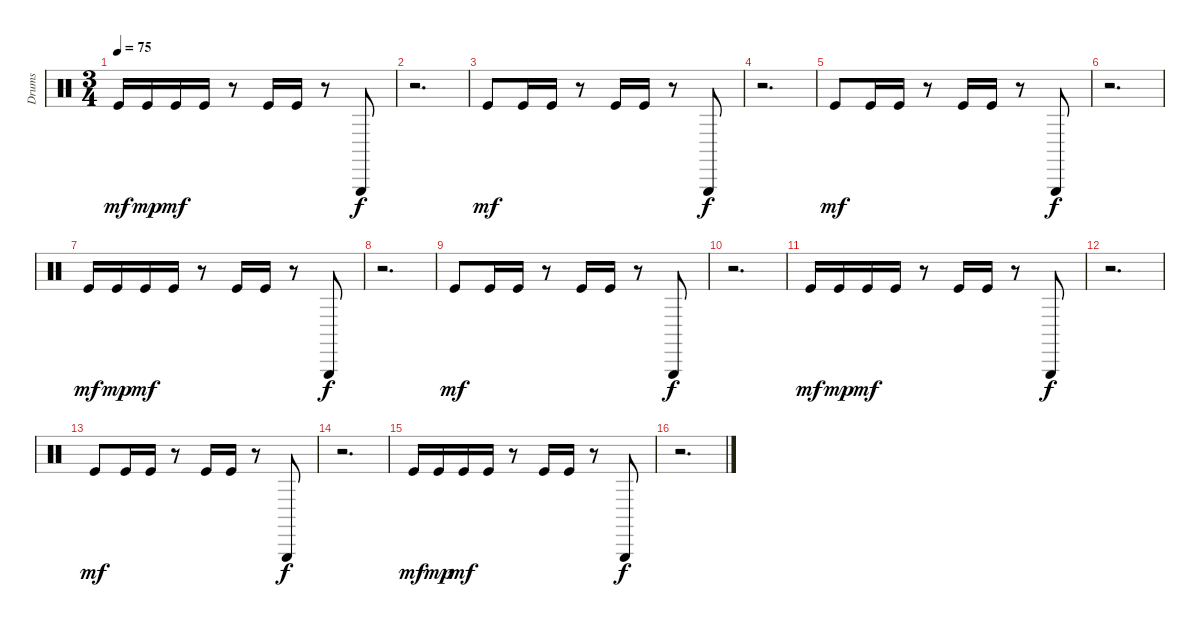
\track ("Drums" "Drums") {instrument percussion}
\staff {score}
\articulation defaults
\ts (3 4)
\tempo 75
\clef neutral
\ks c "Kick (hit)".16{dy mf} "Kick (hit)".16{dy mp} "Kick (hit)".16{dy mf} "Kick (hit)".16
r.8 "Kick (hit)".16 "Kick (hit)".16 r.8 "Triangle (hit)".8{dy f} |
r.2{d} |
"Kick (hit)".8{dy mf} "Kick (hit)".16 "Kick (hit)".16 r.8 "Kick (hit)".16 "Kick (hit)".16 r.8 "Triangle (hit)".8{dy f} |
r.2{d} |
"Kick (hit)".8{dy mf} "Kick (hit)".16 "Kick (hit)".16 r.8 "Kick (hit)".16 "Kick (hit)".16 r.8 "Triangle (hit)".8{dy f} |
r.2{d} |
"Kick (hit)".16{dy mf} "Kick (hit)".16{dy mp} "Kick (hit)".16{dy mf} "Kick (hit)".16 r.8 "Kick (hit)".16 "Kick (hit)".16 r.8 "Triangle (hit)".8{dy f} |
r.2{d} |
"Kick (hit)".8{dy mf} "Kick (hit)".16 "Kick (hit)".16 r.8 "Kick (hit)".16 "Kick (hit)".16 r.8 "Triangle (hit)".8{dy f} |
r.2{d} |
"Kick (hit)".16{dy mf} "Kick (hit)".16{dy mp} "Kick (hit)".16{dy mf} "Kick (hit)".16 r.8 "Kick (hit)".16 "Kick (hit)".16 r.8 "Triangle (hit)".8{dy f} |
r.2{d} |
"Kick (hit)".8{dy mf} "Kick (hit)".16 "Kick (hit)".16 r.8 "Kick (hit)".16 "Kick (hit)".16 r.8 "Triangle (hit)".8{dy f} |
r.2{d} |
"Kick (hit)".16{dy mf} "Kick (hit)".16{dy mp} "Kick (hit)".16{dy mf} "Kick (hit)".16 r.8 "Kick (hit)".16 "Kick (hit)".16 r.8 "Triangle (hit)".8{dy f} |
r.2{d}
